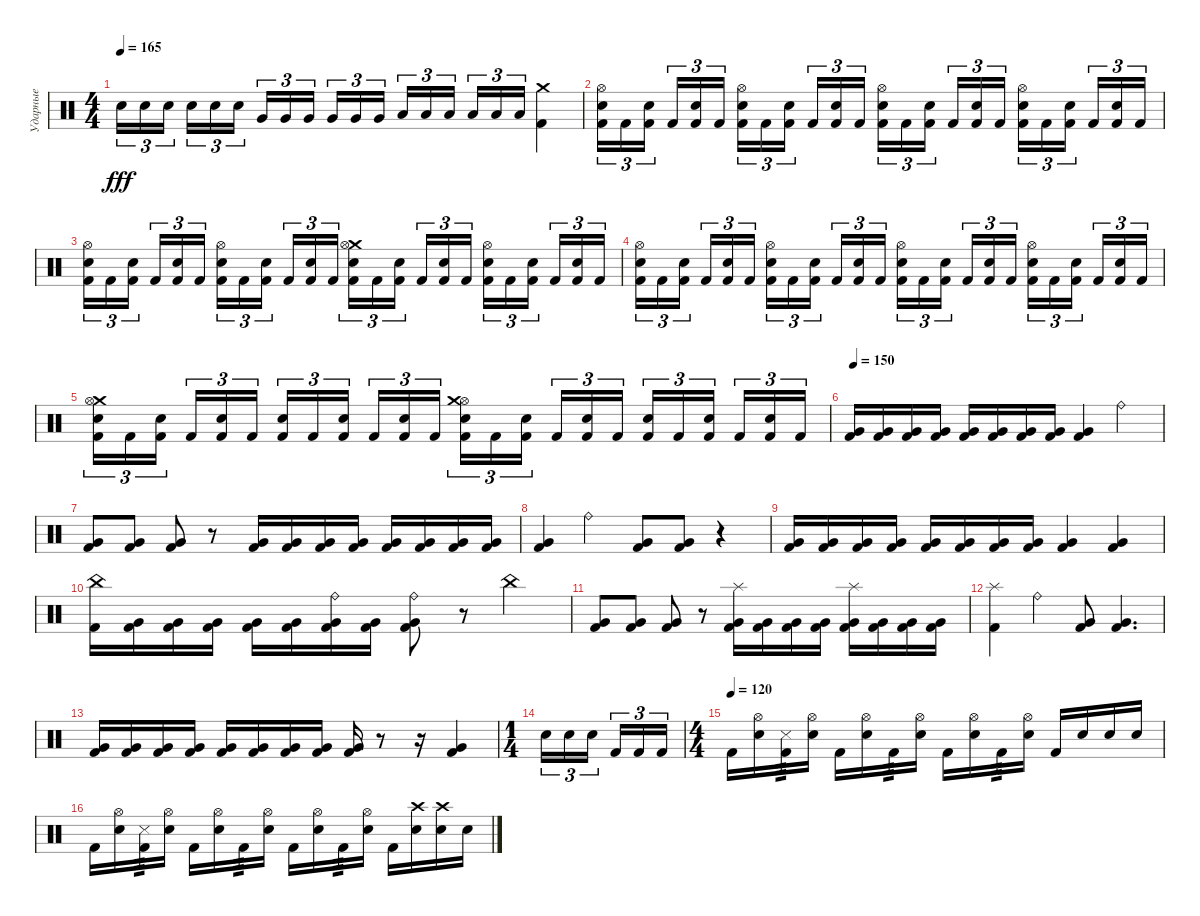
\track ("Ударные" "Ударные") {instrument percussion}
\staff {score}
\articulation defaults
\ts (4 4)
\tempo 165
\clef neutral
\ks c "Electric Snare (hit)".16{tu (3 2) dy fff} "Electric Snare (hit)".16{tu (3 2)} "Electric Snare (hit)".16{tu (3 2) beam splitsecondary} "Electric Snare (hit)".16{tu (3 2)} "Electric Snare (hit)".16{tu (3 2)} "Electric Snare (hit)".16{tu (3 2)} "Very Low Tom (hit)".16{tu (3 2)} "Very Low Tom (hit)".16{tu (3 2)} "Very Low Tom (hit)".16{tu (3 2) beam splitsecondary} "Very Low Tom (hit)".16{tu (3 2)} "Very Low Tom (hit)".16{tu (3 2)} "Very Low Tom (hit)".16{tu (3 2)} "Low Floor Tom (hit)".16{tu (3 2)} "Low Floor Tom (hit)".16{tu (3 2)} "Low Floor Tom (hit)".16{tu (3 2) beam splitsecondary} "Low Floor Tom (hit)".16{tu (3 2)} "Low Floor Tom (hit)".16{tu (3 2)} "Low Floor Tom (hit)".16{tu (3 2)}
("Kick (hit) 2" "Crash medium (hit)").4 |
("Kick (hit) 2" "Electric Snare (hit)" "Hi-Hat (open)").16{tu (3 2)} "Kick (hit) 2".16{tu (3 2)} ("Kick (hit) 2" "Electric Snare (hit)").16{tu (3 2) beam splitsecondary} "Kick (hit) 2".16{tu (3 2)} ("Kick (hit) 2" "Electric Snare (hit)").16{tu (3 2)} "Kick (hit) 2".16{tu (3 2)} ("Kick (hit) 2" "Electric Snare (hit)" "Hi-Hat (open)").16{tu (3 2)} "Kick (hit) 2".16{tu (3 2)} ("Kick (hit) 2" "Electric Snare (hit)").16{tu (3 2) beam splitsecondary} "Kick (hit) 2".16{tu (3 2)} ("Kick (hit) 2" "Electric Snare (hit)").16{tu (3 2)} "Kick (hit) 2".16{tu (3 2)} ("Kick (hit) 2" "Electric Snare (hit)" "Hi-Hat (open)").16{tu (3 2)} "Kick (hit) 2".16{tu (3 2)} ("Kick (hit) 2" "Electric Snare (hit)").16{tu (3 2) beam splitsecondary} "Kick (hit) 2".16{tu (3 2)} ("Kick (hit) 2" "Electric Snare (hit)").16{tu (3 2)} "Kick (hit) 2".16{tu (3 2)} ("Kick (hit) 2" "Electric Snare (hit)" "Hi-Hat (open)").16{tu (3 2)} "Kick (hit) 2".16{tu (3 2)} ("Kick (hit) 2" "Electric Snare (hit)").16{tu (3 2) beam splitsecondary} "Kick (hit) 2".16{tu (3 2)} ("Kick (hit) 2" "Electric Snare (hit)").16{tu (3 2)} "Kick (hit) 2".16{tu (3 2)} |
("Kick (hit) 2" "Electric Snare (hit)" "Hi-Hat (open)").16{tu (3 2)} "Kick (hit) 2".16{tu (3 2)} ("Kick (hit) 2" "Electric Snare (hit)").16{tu (3 2) beam splitsecondary} "Kick (hit) 2".16{tu (3 2)} ("Kick (hit) 2" "Electric Snare (hit)").16{tu (3 2)} "Kick (hit) 2".16{tu (3 2)} ("Kick (hit) 2" "Electric Snare (hit)" "Hi-Hat (open)").16{tu (3 2)} "Kick (hit) 2".16{tu (3 2)} ("Kick (hit) 2" "Electric Snare (hit)").16{tu (3 2) beam splitsecondary} "Kick (hit) 2".16{tu (3 2)} ("Kick (hit) 2" "Electric Snare (hit)").16{tu (3 2)} "Kick (hit) 2".16{tu (3 2)} ("Kick (hit) 2" "Electric Snare (hit)" "Crash medium (hit)" "Hi-Hat (open)").16{tu (3 2)} "Kick (hit) 2".16{tu (3 2)} ("Kick (hit) 2" "Electric Snare (hit)").16{tu (3 2) beam splitsecondary} "Kick (hit) 2".16{tu (3 2)} ("Kick (hit) 2" "Electric Snare (hit)").16{tu (3 2)} "Kick (hit) 2".16{tu (3 2)} ("Kick (hit) 2" "Electric Snare (hit)" "Hi-Hat (open)").16{tu (3 2)} "Kick (hit) 2".16{tu (3 2)} ("Kick (hit) 2" "Electric Snare (hit)").16{tu (3 2) beam splitsecondary} "Kick (hit) 2".16{tu (3 2)} ("Kick (hit) 2" "Electric Snare (hit)").16{tu (3 2)} "Kick (hit) 2".16{tu (3 2)} |
("Kick (hit) 2" "Electric Snare (hit)" "Hi-Hat (open)").16{tu (3 2)} "Kick (hit) 2".16{tu (3 2)} ("Kick (hit) 2" "Electric Snare (hit)").16{tu (3 2) beam splitsecondary} "Kick (hit) 2".16{tu (3 2)} ("Kick (hit) 2" "Electric Snare (hit)").16{tu (3 2)} "Kick (hit) 2".16{tu (3 2)} ("Kick (hit) 2" "Electric Snare (hit)" "Hi-Hat (open)").16{tu (3 2)} "Kick (hit) 2".16{tu (3 2)} ("Kick (hit) 2" "Electric Snare (hit)").16{tu (3 2) beam splitsecondary} "Kick (hit) 2".16{tu (3 2)} ("Kick (hit) 2" "Electric Snare (hit)").16{tu (3 2)} "Kick (hit) 2".16{tu (3 2)} ("Kick (hit) 2" "Electric Snare (hit)" "Hi-Hat (open)").16{tu (3 2)} "Kick (hit) 2".16{tu (3 2)} ("Kick (hit) 2" "Electric Snare (hit)").16{tu (3 2) beam splitsecondary} "Kick (hit) 2".16{tu (3 2)} ("Kick (hit) 2" "Electric Snare (hit)").16{tu (3 2)} "Kick (hit) 2".16{tu (3 2)} ("Kick (hit) 2" "Electric Snare (hit)" "Hi-Hat (open)").16{tu (3 2)} "Kick (hit) 2".16{tu (3 2)} ("Kick (hit) 2" "Electric Snare (hit)").16{tu (3 2) beam splitsecondary} "Kick (hit) 2".16{tu (3 2)} ("Kick (hit) 2" "Electric Snare (hit)").16{tu (3 2)} "Kick (hit) 2".16{tu (3 2)} |
("Kick (hit) 2" "Electric Snare (hit)" "Crash medium (hit)" "Hi-Hat (open)").16{tu (3 2)} "Kick (hit) 2".16{tu (3 2)} ("Kick (hit) 2" "Electric Snare (hit)").16{tu (3 2) beam splitsecondary} "Kick (hit) 2".16{tu (3 2)} ("Kick (hit) 2" "Electric Snare (hit)").16{tu (3 2)} "Kick (hit) 2".16{tu (3 2)} ("Kick (hit) 2" "Electric Snare (hit)").16{tu (3 2)} "Kick (hit) 2".16{tu (3 2)} ("Kick (hit) 2" "Electric Snare (hit)").16{tu (3 2) beam splitsecondary} "Kick (hit) 2".16{tu (3 2)} ("Kick (hit) 2" "Electric Snare (hit)").16{tu (3 2)} "Kick (hit) 2".16{tu (3 2)} ("Kick (hit) 2" "Electric Snare (hit)" "Hi-Hat (open)" "Crash medium (hit)").16{tu (3 2)} "Kick (hit) 2".16{tu (3 2)} ("Kick (hit) 2" "Electric Snare (hit)").16{tu (3 2) beam splitsecondary} "Kick (hit) 2".16{tu (3 2)} ("Kick (hit) 2" "Electric Snare (hit)").16{tu (3 2)} "Kick (hit) 2".16{tu (3 2)} ("Kick (hit) 2" "Electric Snare (hit)").16{tu (3 2)} "Kick (hit) 2".16{tu (3 2)} ("Kick (hit) 2" "Electric Snare (hit)").16{tu (3 2) beam splitsecondary} "Kick (hit) 2".16{tu (3 2)} ("Kick (hit) 2" "Electric Snare (hit)").16{tu (3 2)} "Kick (hit) 2".16{tu (3 2)} |
\tempo 150
("Kick (hit) 2" "Very Low Tom (hit)").16 ("Kick (hit) 2" "Very Low Tom (hit)").16 ("Kick (hit) 2" "Very Low Tom (hit)").16 ("Kick (hit) 2" "Very Low Tom (hit)").16 ("Kick (hit) 2" "Very Low Tom (hit)").16 ("Kick (hit) 2" "Very Low Tom (hit)").16 ("Kick (hit) 2" "Very Low Tom (hit)").16 ("Kick (hit) 2" "Very Low Tom (hit)").16 ("Kick (hit) 2" "Very Low Tom (hit)").4 "Ride (bell)".4 |
("Kick (hit) 2" "Very Low Tom (hit)").8 ("Kick (hit) 2" "Very Low Tom (hit)").8 ("Kick (hit) 2" "Very Low Tom (hit)").8 r.8 ("Kick (hit) 2" "Very Low Tom (hit)").16 ("Kick (hit) 2" "Very Low Tom (hit)").16 ("Kick (hit) 2" "Very Low Tom (hit)").16 ("Kick (hit) 2" "Very Low Tom (hit)").16 ("Kick (hit) 2" "Very Low Tom (hit)").16 ("Kick (hit) 2" "Very Low Tom (hit)").16 ("Kick (hit) 2" "Very Low Tom (hit)").16 ("Kick (hit) 2" "Very Low Tom (hit)").16 |
("Kick (hit) 2" "Very Low Tom (hit)").4 "Ride (bell)".4 ("Kick (hit) 2" "Very Low Tom (hit)").8 ("Kick (hit) 2" "Very Low Tom (hit)").8 r.4 |
("Kick (hit) 2" "Very Low Tom (hit)").16 ("Kick (hit) 2" "Very Low Tom (hit)").16 ("Kick (hit) 2" "Very Low Tom (hit)").16 ("Kick (hit) 2" "Very Low Tom (hit)").16 ("Kick (hit) 2" "Very Low Tom (hit)").16 ("Kick (hit) 2" "Very Low Tom (hit)").16 ("Kick (hit) 2" "Very Low Tom (hit)").16 ("Kick (hit) 2" "Very Low Tom (hit)").16 ("Kick (hit) 2" "Very Low Tom (hit)").4 ("Kick (hit) 2" "Very Low Tom (hit)").4 |
("Kick (hit) 2" "China (hit)").16 ("Kick (hit) 2" "Very Low Tom (hit)").16 ("Kick (hit) 2" "Very Low Tom (hit)").16 ("Kick (hit) 2" "Very Low Tom (hit)").16 ("Kick (hit) 2" "Very Low Tom (hit)").16 ("Kick (hit) 2" "Very Low Tom (hit)").16 ("Kick (hit) 2" "Very Low Tom (hit)" "Ride (bell)").16 ("Kick (hit) 2" "Very Low Tom (hit)").16 ("Kick (hit) 2" "Very Low Tom (hit)" "Ride (bell)").8 r.8 "China (hit)".4 |
("Kick (hit) 2" "Very Low Tom (hit)").8 ("Kick (hit) 2" "Very Low Tom (hit)").8 ("Kick (hit) 2" "Very Low Tom (hit)").8 r.8 ("Kick (hit) 2" "Very Low Tom (hit)" "Splash (hit)").16 ("Kick (hit) 2" "Very Low Tom (hit)").16 ("Kick (hit) 2" "Very Low Tom (hit)").16 ("Kick (hit) 2" "Very Low Tom (hit)").16 ("Kick (hit) 2" "Very Low Tom (hit)" "Splash (hit)").16 ("Kick (hit) 2" "Very Low Tom (hit)").16 ("Kick (hit) 2" "Very Low Tom (hit)").16 ("Kick (hit) 2" "Very Low Tom (hit)").16 |
("Kick (hit) 2" "Splash (hit)").4 "Ride (bell)".4 ("Kick (hit) 2" "Very Low Tom (hit)").8 ("Kick (hit) 2" "Very Low Tom (hit)").4{d} |
("Kick (hit) 2" "Very Low Tom (hit)").16 ("Kick (hit) 2" "Very Low Tom (hit)").16 ("Kick (hit) 2" "Very Low Tom (hit)").16 ("Kick (hit) 2" "Very Low Tom (hit)").16 ("Kick (hit) 2" "Very Low Tom (hit)").16 ("Kick (hit) 2" "Very Low Tom (hit)").16 ("Kick (hit) 2" "Very Low Tom (hit)").16 ("Kick (hit) 2" "Very Low Tom (hit)").16 ("Kick (hit) 2" "Very Low Tom (hit)").16 r.8 r.16 ("Kick (hit) 2" "Very Low Tom (hit)").4 |
\ts (1 4)
"Electric Snare (hit)".16{tu (3 2)} "Electric Snare (hit)".16{tu (3 2)} "Electric Snare (hit)".16{tu (3 2) beam splitsecondary} "Kick (hit) 2".16{tu (3 2)} "Kick (hit) 2".16{tu (3 2)} "Kick (hit) 2".16{tu (3 2)} |
\ts (4 4)
\tempo (120)
"Kick (hit) 2".16 ("Electric Snare (hit)" "Hi-Hat (open)").16 ("Kick (hit) 2" "Snare (side stick) 3").16{tp 3} ("Electric Snare (hit)" "Hi-Hat (open)").16 "Kick (hit) 2".16 ("Electric Snare (hit)" "Hi-Hat (open)").16 "Kick (hit) 2".16{tp 3} ("Electric Snare (hit)" "Hi-Hat (open)").16 "Kick (hit) 2".16 ("Electric Snare (hit)" "Hi-Hat (open)").16 "Kick (hit) 2".16{tp 3} ("Electric Snare (hit)" "Hi-Hat (open)").16 "Kick (hit) 2".16 "Electric Snare (hit)".16 "Electric Snare (hit)".16 "Electric Snare (hit)".16 |
"Kick (hit) 2".16 ("Electric Snare (hit)" "Hi-Hat (open)").16 ("Kick (hit) 2" "Snare (side stick) 3").16{tp 3} ("Electric Snare (hit)" "Hi-Hat (open)").16 "Kick (hit) 2".16 ("Electric Snare (hit)" "Hi-Hat (open)").16 "Kick (hit) 2".16{tp 3} ("Electric Snare (hit)" "Hi-Hat (open)").16 "Kick (hit) 2".16 ("Electric Snare (hit)" "Hi-Hat (open)").16 "Kick (hit) 2".16{tp 3} ("Electric Snare (hit)" "Hi-Hat (open)").16 "Kick (hit) 2".16 ("Electric Snare (hit)" "Crash high (hit)").16 ("Electric Snare (hit)" "Crash high (hit)").16 "Electric Snare (hit)".16
